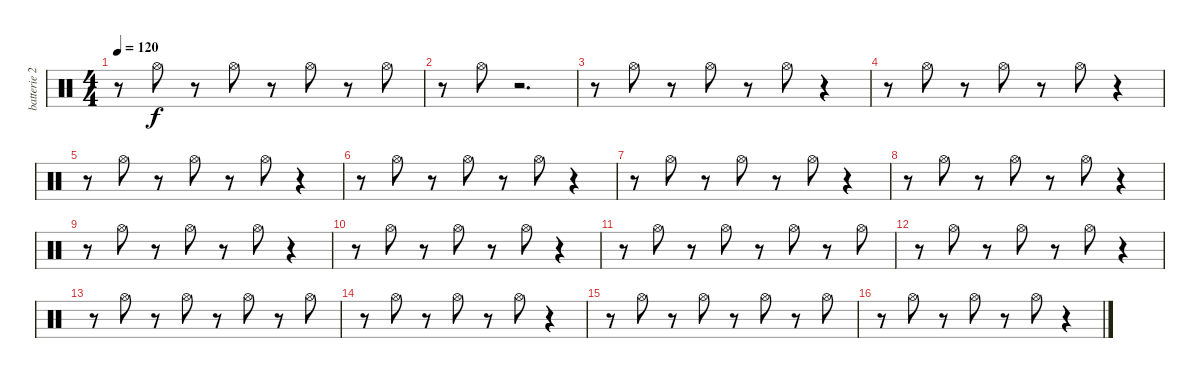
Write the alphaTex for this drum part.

\track ("batterie 2" "batterie 2") {instrument percussion}
\staff {score}
\articulation defaults
\ts (4 4)
\tempo 120
\clef neutral
\ks c
r.8{dy f} "Hi-Hat (open)".8 r.8 "Hi-Hat (open)".8 r.8 "Hi-Hat (open)".8 r.8 "Hi-Hat (open)".8 |
r.8 "Hi-Hat (open)".8 r.2{d} |
r.8 "Hi-Hat (open)".8 r.8 "Hi-Hat (open)".8 r.8 "Hi-Hat (open)".8 r.4 |
r.8 "Hi-Hat (open)".8 r.8 "Hi-Hat (open)".8 r.8 "Hi-Hat (open)".8 r.4 |
r.8 "Hi-Hat (open)".8 r.8 "Hi-Hat (open)".8 r.8 "Hi-Hat (open)".8 r.4 |
r.8 "Hi-Hat (open)".8 r.8 "Hi-Hat (open)".8 r.8 "Hi-Hat (open)".8 r.4 |
r.8 "Hi-Hat (open)".8 r.8 "Hi-Hat (open)".8 r.8 "Hi-Hat (open)".8 r.4 |
r.8 "Hi-Hat (open)".8 r.8 "Hi-Hat (open)".8 r.8 "Hi-Hat (open)".8 r.4 |
r.8 "Hi-Hat (open)".8 r.8 "Hi-Hat (open)".8 r.8 "Hi-Hat (open)".8 r.4 |
r.8 "Hi-Hat (open)".8 r.8 "Hi-Hat (open)".8 r.8 "Hi-Hat (open)".8 r.4 |
r.8 "Hi-Hat (open)".8 r.8 "Hi-Hat (open)".8 r.8 "Hi-Hat (open)".8 r.8 "Hi-Hat (open)".8 |
r.8 "Hi-Hat (open)".8 r.8 "Hi-Hat (open)".8 r.8 "Hi-Hat (open)".8 r.4 |
r.8 "Hi-Hat (open)".8 r.8 "Hi-Hat (open)".8 r.8 "Hi-Hat (open)".8 r.8 "Hi-Hat (open)".8 |
r.8 "Hi-Hat (open)".8 r.8 "Hi-Hat (open)".8 r.8 "Hi-Hat (open)".8 r.4 |
r.8 "Hi-Hat (open)".8 r.8 "Hi-Hat (open)".8 r.8 "Hi-Hat (open)".8 r.8 "Hi-Hat (open)".8 |
r.8 "Hi-Hat (open)".8 r.8 "Hi-Hat (open)".8 r.8 "Hi-Hat (open)".8 r.4
